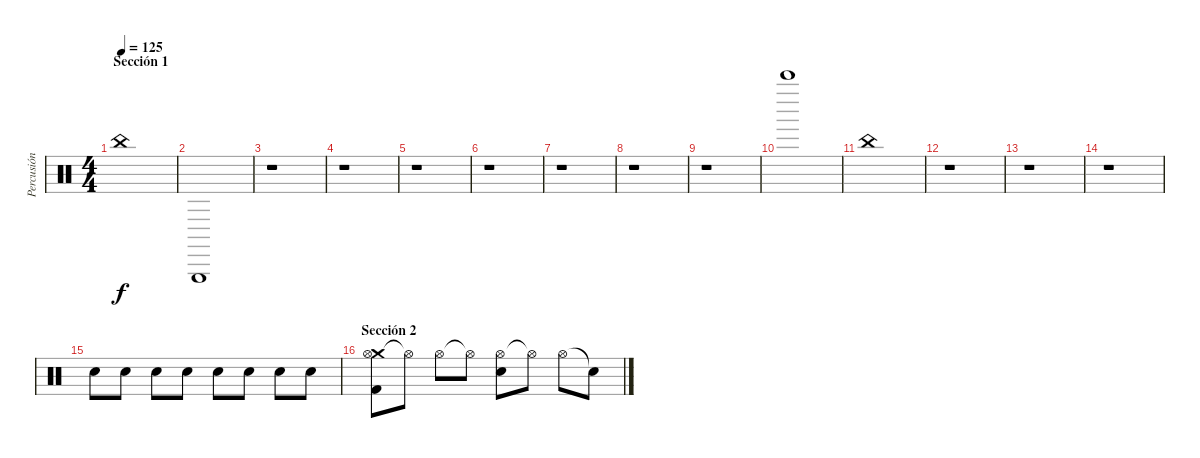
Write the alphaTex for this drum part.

\track ("Percusión" "Percusión") {instrument percussion}
\staff {score}
\articulation defaults
\ts (4 4)
\section ("" "Sección 1")
\tempo 125
\clef neutral
\ks c "China (hit)".1{dy f}
|
"Triangle (hit)".1 |
r.1 |
r.1 |
r.1 |
r.1 |
r.1 |
r.1 |
r.1 |
"Bell Tree (hit)".1 |
"China (hit)".1 |
r.1 |
r.1 |
r.1 |
"Electric Snare (hit)".8 "Electric Snare (hit)".8 "Electric Snare (hit)".8 "Electric Snare (hit)".8 "Electric Snare (hit)".8 "Electric Snare (hit)".8 "Electric Snare (hit)".8 "Electric Snare (hit)".8 |
\section ("" "Sección 2")
("Crash medium (hit)" "Hi-Hat (open)" "Kick (hit) 2").8 "Hi-Hat (open)"{t}.8 "Hi-Hat (open)".8 "Hi-Hat (open)"{t}.8 ("Hi-Hat (open)" "Electric Snare (hit)").8 "Hi-Hat (open)"{t}.8 "Hi-Hat (open)".8 "Snare (hit)"{t}.8
